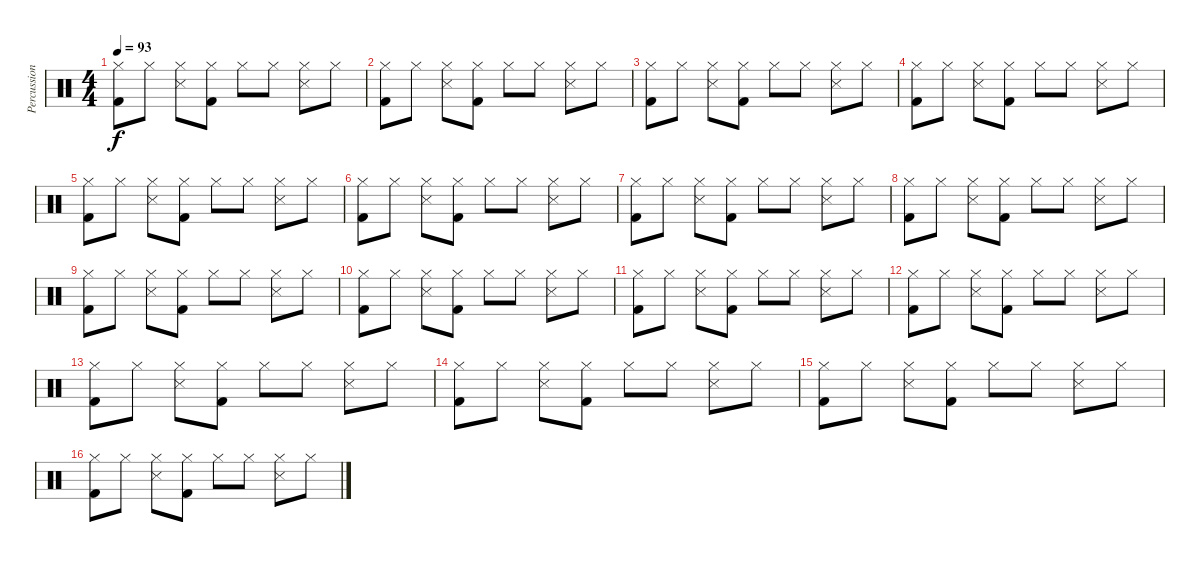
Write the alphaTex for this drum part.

\track ("Percussion" "Percussion") {instrument percussion}
\staff {score}
\articulation defaults
\ts (4 4)
\tempo 93
\clef neutral
\ks c
("Hi-Hat (closed)" "Kick (hit) 2").8{dy f} "Hi-Hat (closed)".8 ("Hi-Hat (closed)" "Snare (side stick) 3").8 ("Hi-Hat (closed)" "Kick (hit) 2").8 "Hi-Hat (closed)".8 "Hi-Hat (closed)".8 ("Hi-Hat (closed)" "Snare (side stick) 3").8 "Hi-Hat (closed)".8 |
("Hi-Hat (closed)" "Kick (hit) 2").8 "Hi-Hat (closed)".8 ("Hi-Hat (closed)" "Snare (side stick) 3").8 ("Hi-Hat (closed)" "Kick (hit) 2").8 "Hi-Hat (closed)".8 "Hi-Hat (closed)".8 ("Hi-Hat (closed)" "Snare (side stick) 3").8 "Hi-Hat (closed)".8 |
("Hi-Hat (closed)" "Kick (hit) 2").8 "Hi-Hat (closed)".8 ("Hi-Hat (closed)" "Snare (side stick) 3").8 ("Hi-Hat (closed)" "Kick (hit) 2").8 "Hi-Hat (closed)".8 "Hi-Hat (closed)".8 ("Hi-Hat (closed)" "Snare (side stick) 3").8 "Hi-Hat (closed)".8 |
("Hi-Hat (closed)" "Kick (hit) 2").8 "Hi-Hat (closed)".8 ("Hi-Hat (closed)" "Snare (side stick) 3").8 ("Hi-Hat (closed)" "Kick (hit) 2").8 "Hi-Hat (closed)".8 "Hi-Hat (closed)".8 ("Hi-Hat (closed)" "Snare (side stick) 3").8 "Hi-Hat (closed)".8 |
("Hi-Hat (closed)" "Kick (hit) 2").8 "Hi-Hat (closed)".8 ("Hi-Hat (closed)" "Snare (side stick) 3").8 ("Hi-Hat (closed)" "Kick (hit) 2").8 "Hi-Hat (closed)".8 "Hi-Hat (closed)".8 ("Hi-Hat (closed)" "Snare (side stick) 3").8 "Hi-Hat (closed)".8 |
("Hi-Hat (closed)" "Kick (hit) 2").8 "Hi-Hat (closed)".8 ("Hi-Hat (closed)" "Snare (side stick) 3").8 ("Hi-Hat (closed)" "Kick (hit) 2").8 "Hi-Hat (closed)".8 "Hi-Hat (closed)".8 ("Hi-Hat (closed)" "Snare (side stick) 3").8 "Hi-Hat (closed)".8 |
("Hi-Hat (closed)" "Kick (hit) 2").8 "Hi-Hat (closed)".8 ("Hi-Hat (closed)" "Snare (side stick) 3").8 ("Hi-Hat (closed)" "Kick (hit) 2").8 "Hi-Hat (closed)".8 "Hi-Hat (closed)".8 ("Hi-Hat (closed)" "Snare (side stick) 3").8 "Hi-Hat (closed)".8 |
("Hi-Hat (closed)" "Kick (hit) 2").8 "Hi-Hat (closed)".8 ("Hi-Hat (closed)" "Snare (side stick) 3").8 ("Hi-Hat (closed)" "Kick (hit) 2").8 "Hi-Hat (closed)".8 "Hi-Hat (closed)".8 ("Hi-Hat (closed)" "Snare (side stick) 3").8 "Hi-Hat (closed)".8 |
("Hi-Hat (closed)" "Kick (hit) 2").8 "Hi-Hat (closed)".8 ("Hi-Hat (closed)" "Snare (side stick) 3").8 ("Hi-Hat (closed)" "Kick (hit) 2").8 "Hi-Hat (closed)".8 "Hi-Hat (closed)".8 ("Hi-Hat (closed)" "Snare (side stick) 3").8 "Hi-Hat (closed)".8 |
("Hi-Hat (closed)" "Kick (hit) 2").8 "Hi-Hat (closed)".8 ("Hi-Hat (closed)" "Snare (side stick) 3").8 ("Hi-Hat (closed)" "Kick (hit) 2").8 "Hi-Hat (closed)".8 "Hi-Hat (closed)".8 ("Hi-Hat (closed)" "Snare (side stick) 3").8 "Hi-Hat (closed)".8 |
("Hi-Hat (closed)" "Kick (hit) 2").8 "Hi-Hat (closed)".8 ("Hi-Hat (closed)" "Snare (side stick) 3").8 ("Hi-Hat (closed)" "Kick (hit) 2").8 "Hi-Hat (closed)".8 "Hi-Hat (closed)".8 ("Hi-Hat (closed)" "Snare (side stick) 3").8 "Hi-Hat (closed)".8 |
("Hi-Hat (closed)" "Kick (hit) 2").8 "Hi-Hat (closed)".8 ("Hi-Hat (closed)" "Snare (side stick) 3").8 ("Hi-Hat (closed)" "Kick (hit) 2").8 "Hi-Hat (closed)".8 "Hi-Hat (closed)".8 ("Hi-Hat (closed)" "Snare (side stick) 3").8 "Hi-Hat (closed)".8 |
("Hi-Hat (closed)" "Kick (hit) 2").8 "Hi-Hat (closed)".8 ("Hi-Hat (closed)" "Snare (side stick) 3").8 ("Hi-Hat (closed)" "Kick (hit) 2").8 "Hi-Hat (closed)".8 "Hi-Hat (closed)".8 ("Hi-Hat (closed)" "Snare (side stick) 3").8 "Hi-Hat (closed)".8 |
("Hi-Hat (closed)" "Kick (hit) 2").8 "Hi-Hat (closed)".8 ("Hi-Hat (closed)" "Snare (side stick) 3").8 ("Hi-Hat (closed)" "Kick (hit) 2").8 "Hi-Hat (closed)".8 "Hi-Hat (closed)".8 ("Hi-Hat (closed)" "Snare (side stick) 3").8 "Hi-Hat (closed)".8 |
("Hi-Hat (closed)" "Kick (hit) 2").8 "Hi-Hat (closed)".8 ("Hi-Hat (closed)" "Snare (side stick) 3").8 ("Hi-Hat (closed)" "Kick (hit) 2").8 "Hi-Hat (closed)".8 "Hi-Hat (closed)".8 ("Hi-Hat (closed)" "Snare (side stick) 3").8 "Hi-Hat (closed)".8 |
("Hi-Hat (closed)" "Kick (hit) 2").8 "Hi-Hat (closed)".8 ("Hi-Hat (closed)" "Snare (side stick) 3").8 ("Hi-Hat (closed)" "Kick (hit) 2").8 "Hi-Hat (closed)".8 "Hi-Hat (closed)".8 ("Hi-Hat (closed)" "Snare (side stick) 3").8 "Hi-Hat (closed)".8
